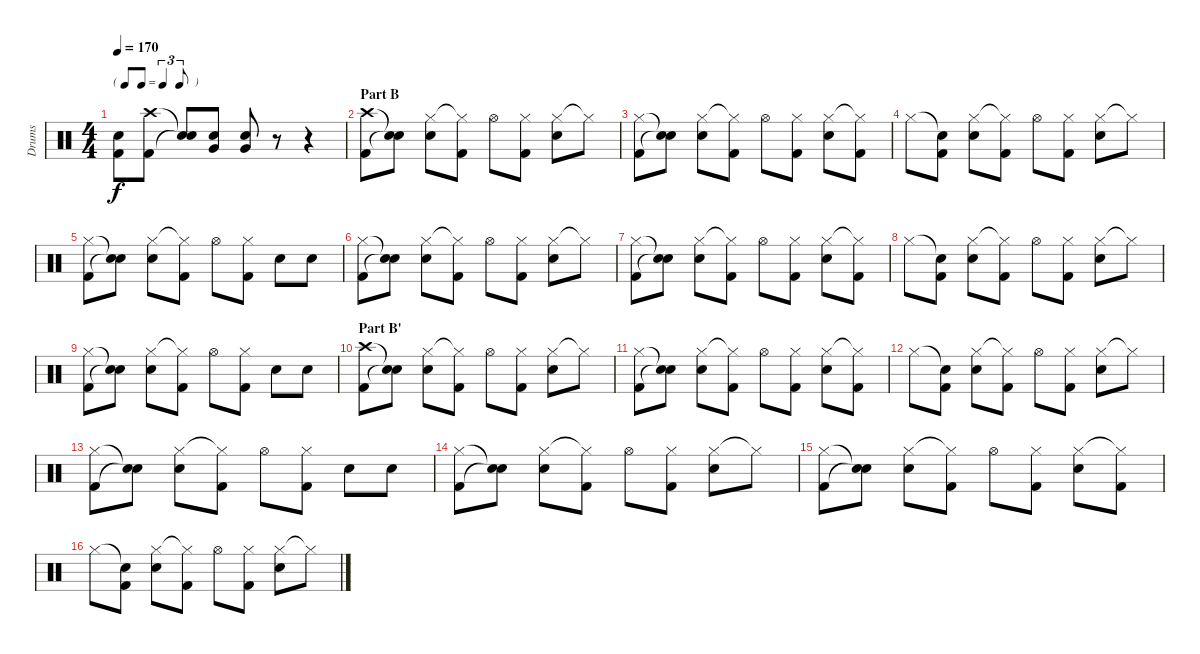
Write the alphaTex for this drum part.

\track ("Drums" "Drums") {instrument percussion}
\staff {score}
\articulation defaults
\ts (4 4)
\tf triplet8th
\tempo 170
\clef neutral
\ks c
("Electric Snare (hit)" "Kick (hit) 2").8{dy f} ("Crash high (hit)" "Kick (hit) 2").8 ("Snare (hit)"{t} "Snare (hit)"{t}).8 ("Very Low Tom (hit)" "Electric Snare (hit)").8 ("Very Low Tom (hit)" "Electric Snare (hit)").8 r.8 r.4 |
\section ("" "Part B")
("Crash high (hit)" "Kick (hit) 2").8 ("Snare (hit)"{t} "Snare (hit)"{t}).8 ("Hi-Hat (closed)" "Electric Snare (hit)").8 ("Hi-Hat (closed)"{t} "Kick (hit) 2").8 "Hi-Hat (open)".8 ("Hi-Hat (closed)" "Kick (hit) 2").8 ("Hi-Hat (closed)" "Electric Snare (hit)").8 "Hi-Hat (closed)"{t}.8 |
("Hi-Hat (closed)" "Kick (hit) 2").8 ("Snare (hit)"{t} "Snare (hit)"{t}).8 ("Hi-Hat (closed)" "Electric Snare (hit)").8 ("Hi-Hat (closed)"{t} "Kick (hit) 2").8 "Hi-Hat (open)".8 ("Hi-Hat (closed)" "Kick (hit) 2").8 ("Hi-Hat (closed)" "Electric Snare (hit)").8 ("Hi-Hat (closed)"{t} "Kick (hit) 2").8 |
"Hi-Hat (closed)".8 ("Snare (hit)"{t} "Kick (hit) 2").8 ("Hi-Hat (closed)" "Electric Snare (hit)").8 ("Hi-Hat (closed)"{t} "Kick (hit) 2").8 "Hi-Hat (open)".8 ("Hi-Hat (closed)" "Kick (hit) 2").8 ("Hi-Hat (closed)" "Electric Snare (hit)").8 "Hi-Hat (closed)"{t}.8 |
("Hi-Hat (closed)" "Kick (hit) 2").8 ("Snare (hit)"{t} "Snare (hit)"{t}).8 ("Hi-Hat (closed)" "Electric Snare (hit)").8 ("Hi-Hat (closed)"{t} "Kick (hit) 2").8 "Hi-Hat (open)".8 ("Hi-Hat (closed)" "Kick (hit) 2").8 "Electric Snare (hit)".8 "Electric Snare (hit)".8 |
("Hi-Hat (closed)" "Kick (hit) 2").8 ("Snare (hit)"{t} "Snare (hit)"{t}).8 ("Hi-Hat (closed)" "Electric Snare (hit)").8 ("Hi-Hat (closed)"{t} "Kick (hit) 2").8 "Hi-Hat (open)".8 ("Hi-Hat (closed)" "Kick (hit) 2").8 ("Hi-Hat (closed)" "Electric Snare (hit)").8 "Hi-Hat (closed)"{t}.8 |
("Hi-Hat (closed)" "Kick (hit) 2").8 ("Snare (hit)"{t} "Snare (hit)"{t}).8 ("Hi-Hat (closed)" "Electric Snare (hit)").8 ("Hi-Hat (closed)"{t} "Kick (hit) 2").8 "Hi-Hat (open)".8 ("Hi-Hat (closed)" "Kick (hit) 2").8 ("Hi-Hat (closed)" "Electric Snare (hit)").8 ("Hi-Hat (closed)"{t} "Kick (hit) 2").8 |
"Hi-Hat (closed)".8 ("Snare (hit)"{t} "Kick (hit) 2").8 ("Hi-Hat (closed)" "Electric Snare (hit)").8 ("Hi-Hat (closed)"{t} "Kick (hit) 2").8 "Hi-Hat (open)".8 ("Hi-Hat (closed)" "Kick (hit) 2").8 ("Hi-Hat (closed)" "Electric Snare (hit)").8 "Hi-Hat (closed)"{t}.8 |
("Hi-Hat (closed)" "Kick (hit) 2").8 ("Snare (hit)"{t} "Snare (hit)"{t}).8 ("Hi-Hat (closed)" "Electric Snare (hit)").8 ("Hi-Hat (closed)"{t} "Kick (hit) 2").8 "Hi-Hat (open)".8 ("Hi-Hat (closed)" "Kick (hit) 2").8 "Electric Snare (hit)".8 "Electric Snare (hit)".8 |
\section ("" "Part B'")
("Crash high (hit)" "Kick (hit) 2").8 ("Snare (hit)"{t} "Snare (hit)"{t}).8 ("Hi-Hat (closed)" "Electric Snare (hit)").8 ("Hi-Hat (closed)"{t} "Kick (hit) 2").8 "Hi-Hat (open)".8 ("Hi-Hat (closed)" "Kick (hit) 2").8 ("Hi-Hat (closed)" "Electric Snare (hit)").8 "Hi-Hat (closed)"{t}.8 |
("Hi-Hat (closed)" "Kick (hit) 2").8 ("Snare (hit)"{t} "Snare (hit)"{t}).8 ("Hi-Hat (closed)" "Electric Snare (hit)").8 ("Hi-Hat (closed)"{t} "Kick (hit) 2").8 "Hi-Hat (open)".8 ("Hi-Hat (closed)" "Kick (hit) 2").8 ("Hi-Hat (closed)" "Electric Snare (hit)").8 ("Hi-Hat (closed)"{t} "Kick (hit) 2").8 |
"Hi-Hat (closed)".8 ("Snare (hit)"{t} "Kick (hit) 2").8 ("Hi-Hat (closed)" "Electric Snare (hit)").8 ("Hi-Hat (closed)"{t} "Kick (hit) 2").8 "Hi-Hat (open)".8 ("Hi-Hat (closed)" "Kick (hit) 2").8 ("Hi-Hat (closed)" "Electric Snare (hit)").8 "Hi-Hat (closed)"{t}.8 |
("Hi-Hat (closed)" "Kick (hit) 2").8 ("Snare (hit)"{t} "Snare (hit)"{t}).8 ("Hi-Hat (closed)" "Electric Snare (hit)").8 ("Hi-Hat (closed)"{t} "Kick (hit) 2").8 "Hi-Hat (open)".8 ("Hi-Hat (closed)" "Kick (hit) 2").8 "Electric Snare (hit)".8 "Electric Snare (hit)".8 |
("Hi-Hat (closed)" "Kick (hit) 2").8 ("Snare (hit)"{t} "Snare (hit)"{t}).8 ("Hi-Hat (closed)" "Electric Snare (hit)").8 ("Hi-Hat (closed)"{t} "Kick (hit) 2").8 "Hi-Hat (open)".8 ("Hi-Hat (closed)" "Kick (hit) 2").8 ("Hi-Hat (closed)" "Electric Snare (hit)").8 "Hi-Hat (closed)"{t}.8 |
("Hi-Hat (closed)" "Kick (hit) 2").8 ("Snare (hit)"{t} "Snare (hit)"{t}).8 ("Hi-Hat (closed)" "Electric Snare (hit)").8 ("Hi-Hat (closed)"{t} "Kick (hit) 2").8 "Hi-Hat (open)".8 ("Hi-Hat (closed)" "Kick (hit) 2").8 ("Hi-Hat (closed)" "Electric Snare (hit)").8 ("Hi-Hat (closed)"{t} "Kick (hit) 2").8 |
"Hi-Hat (closed)".8 ("Snare (hit)"{t} "Kick (hit) 2").8 ("Hi-Hat (closed)" "Electric Snare (hit)").8 ("Hi-Hat (closed)"{t} "Kick (hit) 2").8 "Hi-Hat (open)".8 ("Hi-Hat (closed)" "Kick (hit) 2").8 ("Hi-Hat (closed)" "Electric Snare (hit)").8 "Hi-Hat (closed)"{t}.8
